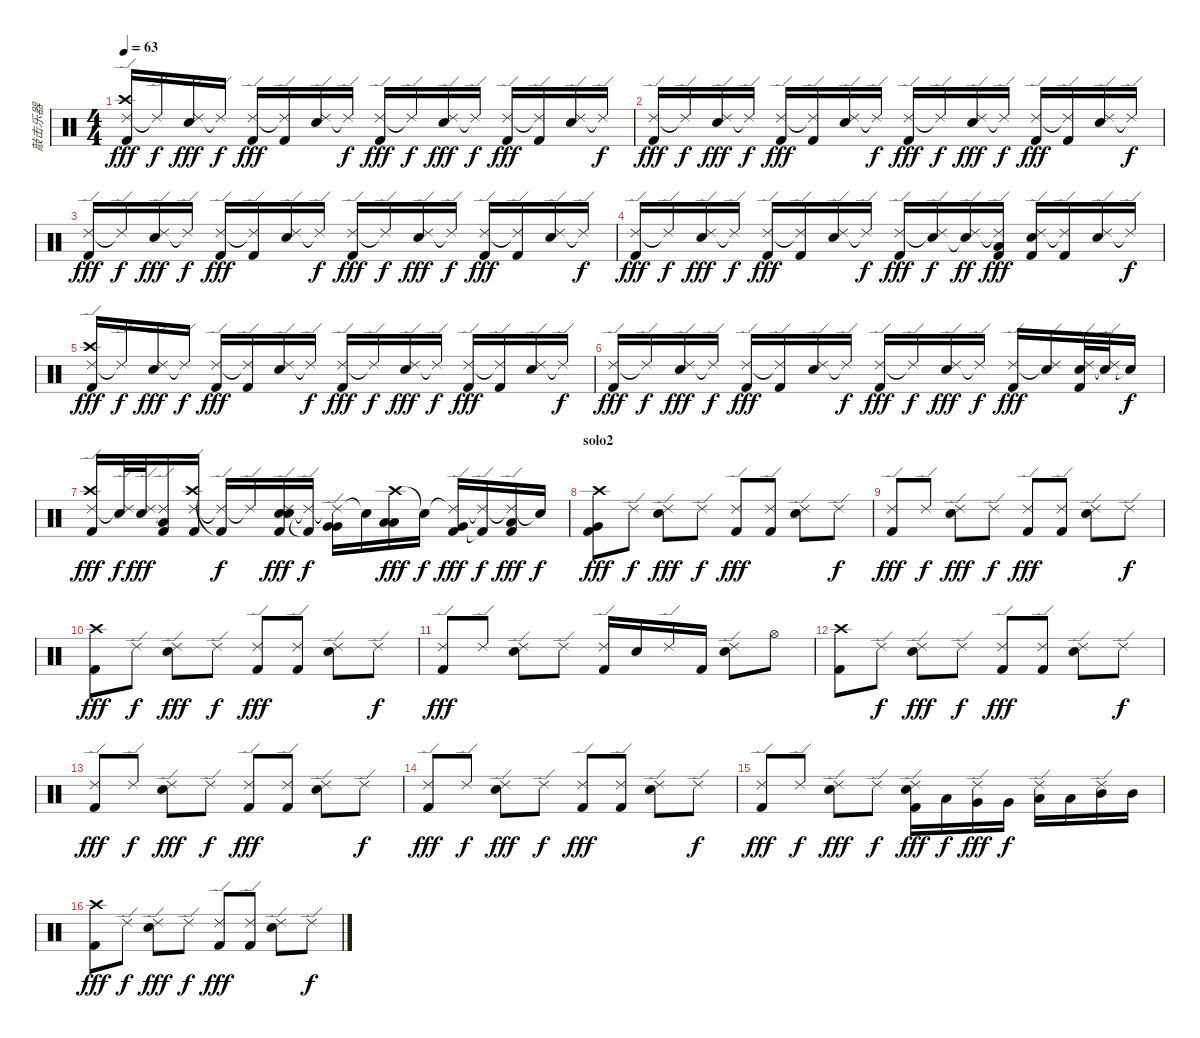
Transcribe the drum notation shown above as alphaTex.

\track ("敲击乐器" "敲击乐器") {instrument percussion}
\staff {score}
\articulation defaults
\ts (4 4)
\tempo 63
\clef neutral
\ks c
("Ride (edge) 2" "Crash high (hit)" "Kick (hit) 2").16{dy fff} "Ride (edge) 2"{t}.16{dy f} ("Ride (edge) 2" "Snare (hit) 2").16{dy fff} "Ride (edge) 2"{t}.16{dy f} ("Ride (edge) 2" "Kick (hit) 2").16{dy fff} ("Ride (edge) 2"{t} "Kick (hit) 2").16 ("Ride (edge) 2" "Snare (hit) 2").16 "Ride (edge) 2"{t}.16{dy f} ("Ride (edge) 2" "Kick (hit) 2").16{dy fff} "Ride (edge) 2"{t}.16{dy f} ("Ride (edge) 2" "Snare (hit) 2").16{dy fff} "Ride (edge) 2"{t}.16{dy f} ("Ride (edge) 2" "Kick (hit) 2").16{dy fff} ("Ride (edge) 2"{t} "Kick (hit) 2").16 ("Ride (edge) 2" "Snare (hit) 2").16 "Ride (edge) 2"{t}.16{dy f} |
("Ride (edge) 2" "Kick (hit) 2").16{dy fff} "Ride (edge) 2"{t}.16{dy f} ("Ride (edge) 2" "Snare (hit) 2").16{dy fff} "Ride (edge) 2"{t}.16{dy f} ("Ride (edge) 2" "Kick (hit) 2").16{dy fff} ("Ride (edge) 2"{t} "Kick (hit) 2").16 ("Ride (edge) 2" "Snare (hit) 2").16 "Ride (edge) 2"{t}.16{dy f} ("Ride (edge) 2" "Kick (hit) 2").16{dy fff} "Ride (edge) 2"{t}.16{dy f} ("Ride (edge) 2" "Snare (hit) 2").16{dy fff} "Ride (edge) 2"{t}.16{dy f} ("Ride (edge) 2" "Kick (hit) 2").16{dy fff} ("Ride (edge) 2"{t} "Kick (hit) 2").16 ("Ride (edge) 2" "Snare (hit) 2").16 "Ride (edge) 2"{t}.16{dy f} |
("Ride (edge) 2" "Kick (hit) 2").16{dy fff} "Ride (edge) 2"{t}.16{dy f} ("Ride (edge) 2" "Snare (hit) 2").16{dy fff} "Ride (edge) 2"{t}.16{dy f} ("Ride (edge) 2" "Kick (hit) 2").16{dy fff} ("Ride (edge) 2"{t} "Kick (hit) 2").16 ("Ride (edge) 2" "Snare (hit) 2").16 "Ride (edge) 2"{t}.16{dy f} ("Ride (edge) 2" "Kick (hit) 2").16{dy fff} "Ride (edge) 2"{t}.16{dy f} ("Ride (edge) 2" "Snare (hit) 2").16{dy fff} "Ride (edge) 2"{t}.16{dy f} ("Ride (edge) 2" "Kick (hit) 2").16{dy fff} ("Ride (edge) 2"{t} "Kick (hit) 2").16 ("Ride (edge) 2" "Snare (hit) 2").16 "Ride (edge) 2"{t}.16{dy f} |
("Ride (edge) 2" "Kick (hit) 2").16{dy fff} "Ride (edge) 2"{t}.16{dy f} ("Ride (edge) 2" "Snare (hit) 2").16{dy fff} "Ride (edge) 2"{t}.16{dy f} ("Ride (edge) 2" "Kick (hit) 2").16{dy fff} ("Ride (edge) 2"{t} "Kick (hit) 2").16 ("Ride (edge) 2" "Snare (hit) 2").16 "Ride (edge) 2"{t}.16{dy f} ("Ride (edge) 2" "Kick (hit) 2").16{dy fff} ("Ride (edge) 2"{t} "Snare (hit) 2").16{dy f} ("Ride (edge) 2" "Snare (hit) 2"{t}).16{dy ff} ("Ride (edge) 2"{t} "Low Tom (hit)" "Kick (hit) 2").16{dy fff} ("Ride (edge) 2" "Snare (hit) 2" "Kick (hit) 2").16 ("Ride (edge) 2"{t} "Kick (hit) 2").16 ("Ride (edge) 2" "Snare (hit) 2").16 "Ride (edge) 2"{t}.16{dy f} |
("Ride (edge) 2" "Crash high (hit)" "Kick (hit) 2").16{dy fff} "Ride (edge) 2"{t}.16{dy f} ("Ride (edge) 2" "Snare (hit) 2").16{dy fff} "Ride (edge) 2"{t}.16{dy f} ("Ride (edge) 2" "Kick (hit) 2").16{dy fff} ("Ride (edge) 2"{t} "Kick (hit) 2").16 ("Ride (edge) 2" "Snare (hit) 2").16 "Ride (edge) 2"{t}.16{dy f} ("Ride (edge) 2" "Kick (hit) 2").16{dy fff} "Ride (edge) 2"{t}.16{dy f} ("Ride (edge) 2" "Snare (hit) 2").16{dy fff} "Ride (edge) 2"{t}.16{dy f} ("Ride (edge) 2" "Kick (hit) 2").16{dy fff} ("Ride (edge) 2"{t} "Kick (hit) 2").16 ("Ride (edge) 2" "Snare (hit) 2").16 "Ride (edge) 2"{t}.16{dy f} |
("Ride (edge) 2" "Kick (hit) 2").16{dy fff} "Ride (edge) 2"{t}.16{dy f} ("Ride (edge) 2" "Snare (hit) 2").16{dy fff} "Ride (edge) 2"{t}.16{dy f} ("Ride (edge) 2" "Kick (hit) 2").16{dy fff} ("Ride (edge) 2"{t} "Kick (hit) 2").16 ("Ride (edge) 2" "Snare (hit) 2").16 "Ride (edge) 2"{t}.16{dy f} ("Ride (edge) 2" "Kick (hit) 2").16{dy fff} "Ride (edge) 2"{t}.16{dy f} ("Ride (edge) 2" "Snare (hit) 2").16{dy fff} "Ride (edge) 2"{t}.16{dy f} ("Ride (edge) 2" "Kick (hit) 2").16{dy fff} ("Ride (edge) 2"{t} "Snare (hit) 2").16 ("Ride (edge) 2" "Snare (hit) 2" "Kick (hit) 2").32 ("Ride (edge) 2"{t} "Snare (hit) 2").32 "Snare (hit)"{t}.16{dy f} |
("Ride (edge) 2" "Crash high (hit)" "Kick (hit) 2").16{dy fff} ("Ride (edge) 2"{t} "Snare (hit) 2").32{dy f} ("Ride (edge) 2" "Snare (hit) 2").32{dy fff} ("Ride (edge) 2"{t} "Low Tom (hit)" "Kick (hit) 2").16 ("Ride (edge) 2" "Crash high (hit)" "Kick (hit) 2").16 ("Ride (edge) 2"{t} "Kick (hit) 2"{t}).16{dy f} "Ride (edge) 2"{t}.16 ("Ride (edge) 2" "Electric Snare (hit)" "Snare (hit) 2" "Kick (hit) 2").16{dy fff} ("Ride (edge) 2"{t} "Kick (hit) 2"{t}).16{dy f} ("Ride (edge) 2"{t} "Very Low Tom (hit)" "Very Low Tom (hit)").16 "Snare (hit) 2"{t}.16 ("Crash high (hit)" "Low Tom (hit)" "Low Tom (hit)").16{dy fff} "Snare (hit)"{t}.16{dy f} ("Ride (edge) 2"{t} "Very Low Tom (hit)" "Kick (hit) 2").16{dy fff} ("Ride (edge) 2"{t} "Kick (hit) 2"{t}).16{dy f} ("Ride (edge) 2"{t} "Low Tom (hit)" "Kick (hit) 2").16{dy fff} "Snare (hit)"{t}.16{dy f} |
\section ("" "solo2")
("Crash high (hit)" "Very Low Tom (hit)" "Kick (hit) 2").8{dy fff} "Ride (edge) 2".8{dy f} ("Ride (edge) 2" "Snare (hit) 2").8{dy fff} "Ride (edge) 2".8{dy f} ("Ride (edge) 2" "Kick (hit) 2").8{dy fff} ("Ride (edge) 2" "Kick (hit) 2").8 ("Ride (edge) 2" "Snare (hit) 2").8 "Ride (edge) 2".8{dy f} |
("Ride (edge) 2" "Kick (hit) 2").8{dy fff} "Ride (edge) 2".8{dy f} ("Ride (edge) 2" "Snare (hit) 2").8{dy fff} "Ride (edge) 2".8{dy f} ("Ride (edge) 2" "Kick (hit) 2").8{dy fff} ("Ride (edge) 2" "Kick (hit) 2").8 ("Ride (edge) 2" "Snare (hit) 2").8 "Ride (edge) 2".8{dy f} |
("Crash high (hit)" "Kick (hit) 2").8{dy fff} "Ride (edge) 2".8{dy f} ("Ride (edge) 2" "Snare (hit) 2").8{dy fff} "Ride (edge) 2".8{dy f} ("Ride (edge) 2" "Kick (hit) 2").8{dy fff} ("Ride (edge) 2" "Kick (hit) 2").8 ("Ride (edge) 2" "Snare (hit) 2").8 "Ride (edge) 2".8{dy f} |
("Ride (edge) 2" "Kick (hit) 2").8{dy fff} "Ride (edge) 2".8 ("Ride (edge) 2" "Snare (hit) 2").8 "Ride (edge) 2".8 ("Ride (edge) 2" "Kick (hit) 2").16 "Snare (hit) 2".16 "Ride (edge) 2".16 "Kick (hit) 2".16 ("Ride (edge) 2" "Snare (hit) 2").8 "Hi-Hat (open)".8 |
("Crash high (hit)" "Kick (hit) 2").8 "Ride (edge) 2".8{dy f} ("Ride (edge) 2" "Snare (hit) 2").8{dy fff} "Ride (edge) 2".8{dy f} ("Ride (edge) 2" "Kick (hit) 2").8{dy fff} ("Ride (edge) 2" "Kick (hit) 2").8 ("Ride (edge) 2" "Snare (hit) 2").8 "Ride (edge) 2".8{dy f} |
("Ride (edge) 2" "Kick (hit) 2").8{dy fff} "Ride (edge) 2".8{dy f} ("Ride (edge) 2" "Snare (hit) 2").8{dy fff} "Ride (edge) 2".8{dy f} ("Ride (edge) 2" "Kick (hit) 2").8{dy fff} ("Ride (edge) 2" "Kick (hit) 2").8 ("Ride (edge) 2" "Snare (hit) 2").8 "Ride (edge) 2".8{dy f} |
("Ride (edge) 2" "Kick (hit) 2").8{dy fff} "Ride (edge) 2".8{dy f} ("Ride (edge) 2" "Snare (hit) 2").8{dy fff} "Ride (edge) 2".8{dy f} ("Ride (edge) 2" "Kick (hit) 2").8{dy fff} ("Ride (edge) 2" "Kick (hit) 2").8 ("Ride (edge) 2" "Snare (hit) 2").8 "Ride (edge) 2".8{dy f} |
("Ride (edge) 2" "Kick (hit) 2").8{dy fff} "Ride (edge) 2".8{dy f} ("Ride (edge) 2" "Snare (hit) 2").8{dy fff} "Ride (edge) 2".8{dy f} ("Ride (edge) 2" "Snare (hit) 2" "Kick (hit) 2").16{dy fff} "Low Tom (hit)".16{dy f} ("Ride (edge) 2" "Very Low Tom (hit)").16{dy fff} "Very Low Tom (hit)".16{dy f} ("Ride (edge) 2" "Low Tom (hit)").16 "Low Tom (hit)".16 ("Ride (edge) 2" "Mid Tom (hit)").16 "Mid Tom (hit)".16 |
("Crash high (hit)" "Kick (hit) 2").8{dy fff} "Ride (edge) 2".8{dy f} ("Ride (edge) 2" "Snare (hit) 2").8{dy fff} "Ride (edge) 2".8{dy f} ("Ride (edge) 2" "Kick (hit) 2").8{dy fff} ("Ride (edge) 2" "Kick (hit) 2").8 ("Ride (edge) 2" "Snare (hit) 2").8 "Ride (edge) 2".8{dy f}
